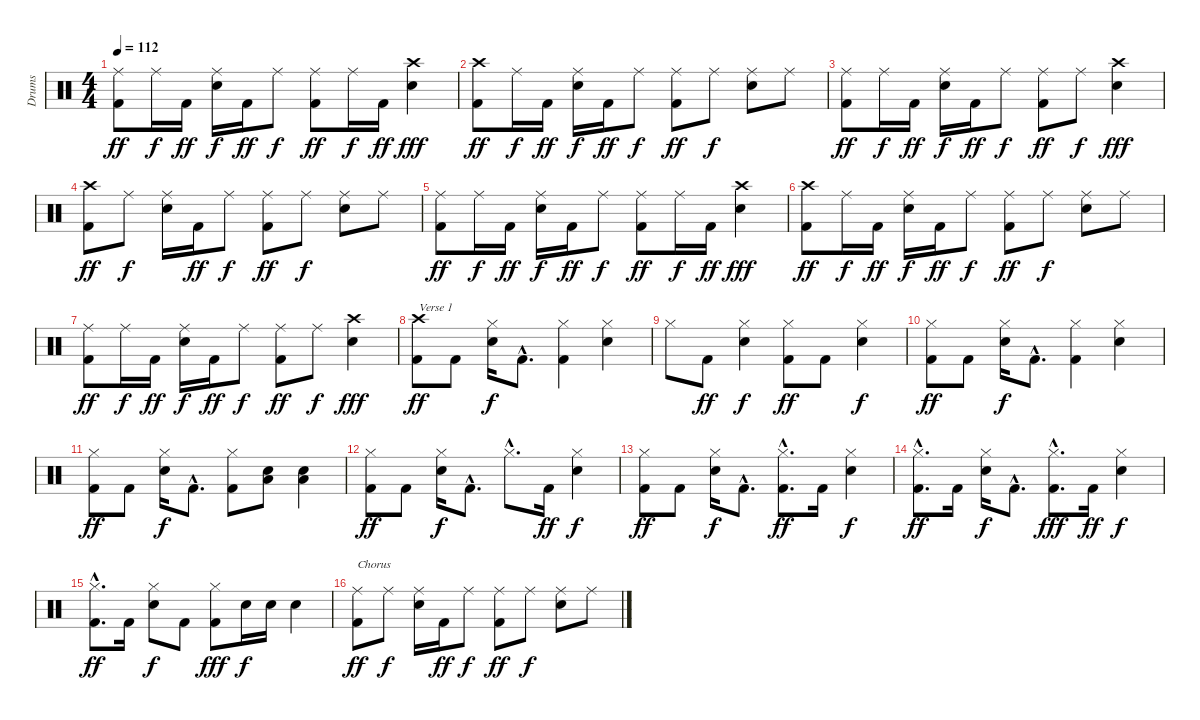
\track ("Drums" "Drums") {instrument percussion}
\staff {score}
\articulation defaults
\ts (4 4)
\tempo 112
\clef neutral
\ks c
("Ride (middle)" "Kick (hit) 2").8{dy ff} "Ride (middle)".16{dy f} "Kick (hit) 2".16{dy ff} ("Ride (middle)" "Snare (hit) 2").16{dy f} "Kick (hit) 2".16{dy ff} "Ride (middle)".8{dy f} ("Ride (middle)" "Kick (hit) 2").8{dy ff} "Ride (middle)".16{dy f} "Kick (hit) 2".16{dy ff} ("Crash high (hit)" "Snare (hit) 2").4{dy fff} |
("Crash high (hit)" "Kick (hit) 2").8{dy ff} "Ride (middle)".16{dy f} "Kick (hit) 2".16{dy ff} ("Ride (middle)" "Snare (hit) 2").16{dy f} "Kick (hit) 2".16{dy ff} "Ride (middle)".8{dy f} ("Ride (middle)" "Kick (hit) 2").8{dy ff} "Ride (middle)".8{dy f} ("Ride (middle)" "Snare (hit) 2").8 "Ride (middle)".8 |
("Ride (middle)" "Kick (hit) 2").8{dy ff} "Ride (middle)".16{dy f} "Kick (hit) 2".16{dy ff} ("Ride (middle)" "Snare (hit) 2").16{dy f} "Kick (hit) 2".16{dy ff} "Ride (middle)".8{dy f} ("Ride (middle)" "Kick (hit) 2").8{dy ff} "Ride (middle)".8{dy f} ("Crash high (hit)" "Snare (hit) 2").4{dy fff} |
("Crash high (hit)" "Kick (hit) 2").8{dy ff} "Ride (middle)".8{dy f} ("Ride (middle)" "Snare (hit) 2").16 "Kick (hit) 2".16{dy ff} "Ride (middle)".8{dy f} ("Ride (middle)" "Kick (hit) 2").8{dy ff} "Ride (middle)".8{dy f} ("Ride (middle)" "Snare (hit) 2").8 "Ride (middle)".8 |
("Ride (middle)" "Kick (hit) 2").8{dy ff} "Ride (middle)".16{dy f} "Kick (hit) 2".16{dy ff} ("Ride (middle)" "Snare (hit) 2").16{dy f} "Kick (hit) 2".16{dy ff} "Ride (middle)".8{dy f} ("Ride (middle)" "Kick (hit) 2").8{dy ff} "Ride (middle)".16{dy f} "Kick (hit) 2".16{dy ff} ("Crash high (hit)" "Snare (hit) 2").4{dy fff} |
("Crash high (hit)" "Kick (hit) 2").8{dy ff} "Ride (middle)".16{dy f} "Kick (hit) 2".16{dy ff} ("Ride (middle)" "Snare (hit) 2").16{dy f} "Kick (hit) 2".16{dy ff} "Ride (middle)".8{dy f} ("Ride (middle)" "Kick (hit) 2").8{dy ff} "Ride (middle)".8{dy f} ("Ride (middle)" "Snare (hit) 2").8 "Ride (middle)".8 |
("Ride (middle)" "Kick (hit) 2").8{dy ff} "Ride (middle)".16{dy f} "Kick (hit) 2".16{dy ff} ("Ride (middle)" "Snare (hit) 2").16{dy f} "Kick (hit) 2".16{dy ff} "Ride (middle)".8{dy f} ("Ride (middle)" "Kick (hit) 2").8{dy ff} "Ride (middle)".8{dy f} ("Crash high (hit)" "Snare (hit) 2").4{dy fff} |
("Crash high (hit)" "Kick (hit) 2").8{txt "Verse 1" dy ff} "Kick (hit) 2".8 ("Hi-Hat (closed)" "Snare (hit) 2").16{dy f} "Kick (hit) 2"{hac}.8{d} ("Hi-Hat (closed)" "Kick (hit) 2").4 ("Hi-Hat (closed)" "Snare (hit) 2").4 |
"Hi-Hat (closed)".8 "Kick (hit) 2".8{dy ff} ("Hi-Hat (closed)" "Snare (hit) 2").4{dy f} ("Hi-Hat (closed)" "Kick (hit) 2").8{dy ff} "Kick (hit) 2".8 ("Hi-Hat (closed)" "Snare (hit) 2").4{dy f} |
("Hi-Hat (closed)" "Kick (hit) 2").8{dy ff} "Kick (hit) 2".8 ("Hi-Hat (closed)" "Snare (hit) 2").16{dy f} "Kick (hit) 2"{hac}.8{d} ("Hi-Hat (closed)" "Kick (hit) 2").4 ("Hi-Hat (closed)" "Snare (hit) 2").4 |
("Hi-Hat (closed)" "Kick (hit) 2").8{dy ff} "Kick (hit) 2".8 ("Hi-Hat (closed)" "Snare (hit) 2").16{dy f} "Kick (hit) 2"{hac}.8{d} ("Hi-Hat (closed)" "Kick (hit) 2").8 ("Snare (hit) 2" "Low Floor Tom (hit)").8 ("Snare (hit) 2" "Low Floor Tom (hit)").4 |
("Hi-Hat (closed)" "Kick (hit) 2").8{dy ff} "Kick (hit) 2".8 ("Hi-Hat (closed)" "Snare (hit) 2").16{dy f} "Kick (hit) 2"{hac}.8{d} "Hi-Hat (closed)"{hac}.8{d} "Kick (hit) 2".16{dy ff} ("Hi-Hat (closed)" "Snare (hit) 2").4{dy f} |
("Hi-Hat (closed)" "Kick (hit) 2").8{dy ff} "Kick (hit) 2".8 ("Hi-Hat (closed)" "Snare (hit) 2").16{dy f} "Kick (hit) 2"{hac}.8{d} ("Hi-Hat (closed)"{hac} "Kick (hit) 2"{hac}).8{d dy ff} "Kick (hit) 2".16 ("Hi-Hat (closed)" "Snare (hit) 2").4{dy f} |
("Hi-Hat (closed)"{hac} "Kick (hit) 2"{hac}).8{d dy ff} "Kick (hit) 2".16 ("Hi-Hat (closed)" "Snare (hit) 2").16{dy f} "Kick (hit) 2"{hac}.8{d} ("Hi-Hat (closed)"{hac} "Kick (hit) 2"{hac}).8{d dy fff} "Kick (hit) 2".16{dy ff} ("Hi-Hat (closed)" "Snare (hit) 2").4{dy f} |
("Hi-Hat (closed)"{hac} "Kick (hit) 2"{hac}).8{d dy ff} "Kick (hit) 2".16 ("Hi-Hat (closed)" "Snare (hit) 2").8{dy f} "Kick (hit) 2".8 ("Hi-Hat (closed)" "Kick (hit) 2").8{dy fff} "Snare (hit) 2".16{dy f} "Snare (hit) 2".16 "Snare (hit) 2".4 |
("Ride (middle)" "Kick (hit) 2").8{txt "Chorus" dy ff} "Ride (middle)".8{dy f} ("Ride (middle)" "Snare (hit) 2").16 "Kick (hit) 2".16{dy ff} "Ride (middle)".8{dy f} ("Ride (middle)" "Kick (hit) 2").8{dy ff} "Ride (middle)".8{dy f} ("Ride (middle)" "Snare (hit) 2").8 "Ride (middle)".8
